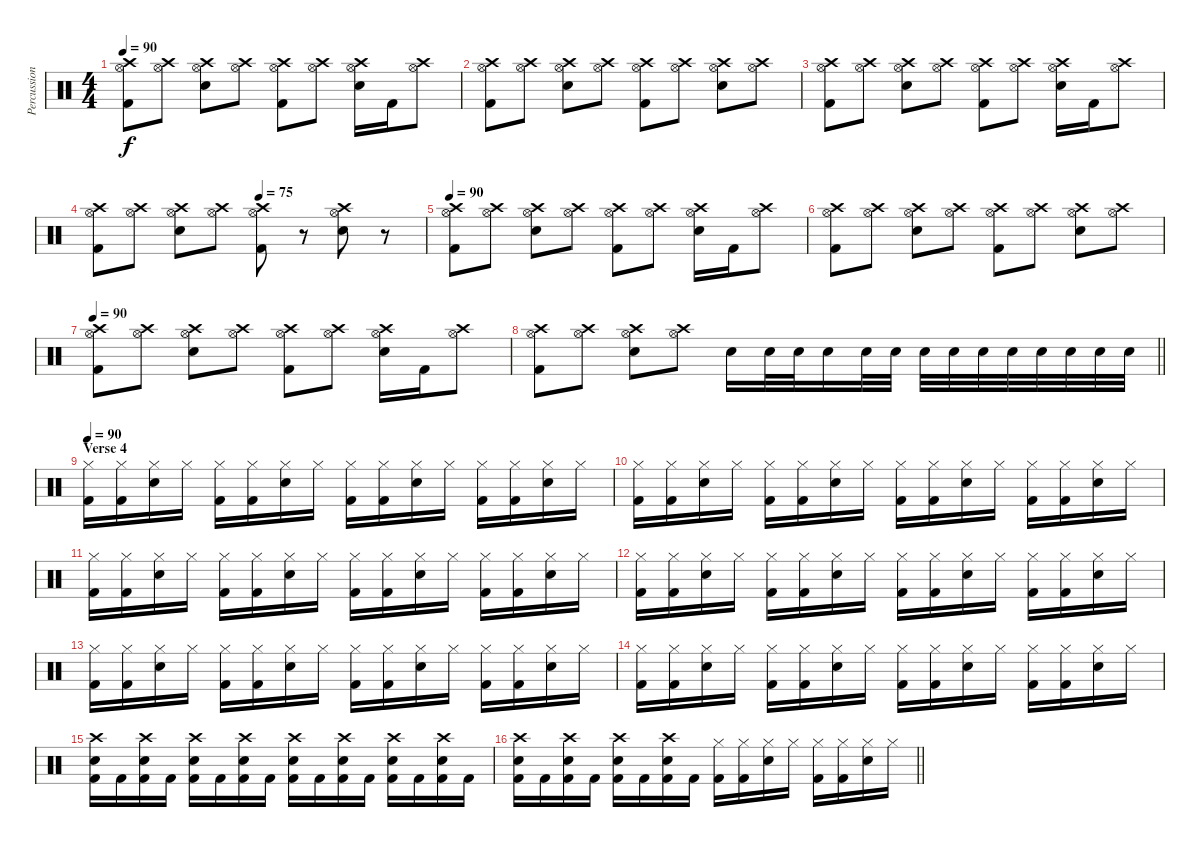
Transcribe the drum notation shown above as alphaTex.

\track ("Percussion" "Percussion") {instrument percussion}
\staff {score}
\articulation defaults
\ts (4 4)
\tempo 90
\clef neutral
\ks c
("Hi-Hat (open)" "Crash high (hit)" "Kick (hit) 2").8{dy f} ("Hi-Hat (open)" "Crash high (hit)").8 ("Hi-Hat (open)" "Crash high (hit)" "Snare (hit) 2").8 ("Hi-Hat (open)" "Crash high (hit)").8 ("Hi-Hat (open)" "Crash high (hit)" "Kick (hit) 2").8 ("Hi-Hat (open)" "Crash high (hit)").8 ("Hi-Hat (open)" "Crash high (hit)" "Snare (hit) 2").16 "Kick (hit) 2".16 ("Hi-Hat (open)" "Crash high (hit)").8 |
("Hi-Hat (open)" "Crash high (hit)" "Kick (hit) 2").8 ("Hi-Hat (open)" "Crash high (hit)").8 ("Hi-Hat (open)" "Crash high (hit)" "Snare (hit) 2").8 ("Hi-Hat (open)" "Crash high (hit)").8 ("Hi-Hat (open)" "Crash high (hit)" "Kick (hit) 2").8 ("Hi-Hat (open)" "Crash high (hit)").8 ("Hi-Hat (open)" "Crash high (hit)" "Snare (hit) 2").8 ("Hi-Hat (open)" "Crash high (hit)").8 |
("Hi-Hat (open)" "Crash high (hit)" "Kick (hit) 2").8 ("Hi-Hat (open)" "Crash high (hit)").8 ("Hi-Hat (open)" "Crash high (hit)" "Snare (hit) 2").8 ("Hi-Hat (open)" "Crash high (hit)").8 ("Hi-Hat (open)" "Crash high (hit)" "Kick (hit) 2").8 ("Hi-Hat (open)" "Crash high (hit)").8 ("Hi-Hat (open)" "Crash high (hit)" "Snare (hit) 2").16 "Kick (hit) 2".16 ("Hi-Hat (open)" "Crash high (hit)").8 |
\tempo (75 0.5)
("Hi-Hat (open)" "Crash high (hit)" "Kick (hit) 2").8 ("Hi-Hat (open)" "Crash high (hit)").8 ("Hi-Hat (open)" "Crash high (hit)" "Snare (hit) 2").8 ("Hi-Hat (open)" "Crash high (hit)").8 ("Hi-Hat (open)" "Crash high (hit)" "Kick (hit) 2").8 r.8 ("Hi-Hat (open)" "Crash high (hit)" "Snare (hit) 2").8 r.8 |
\tempo 90
("Hi-Hat (open)" "Crash high (hit)" "Kick (hit) 2").8 ("Hi-Hat (open)" "Crash high (hit)").8 ("Hi-Hat (open)" "Crash high (hit)" "Snare (hit) 2").8 ("Hi-Hat (open)" "Crash high (hit)").8 ("Hi-Hat (open)" "Crash high (hit)" "Kick (hit) 2").8 ("Hi-Hat (open)" "Crash high (hit)").8 ("Hi-Hat (open)" "Crash high (hit)" "Snare (hit) 2").16 "Kick (hit) 2".16 ("Hi-Hat (open)" "Crash high (hit)").8 |
("Hi-Hat (open)" "Crash high (hit)" "Kick (hit) 2").8 ("Hi-Hat (open)" "Crash high (hit)").8 ("Hi-Hat (open)" "Crash high (hit)" "Snare (hit) 2").8 ("Hi-Hat (open)" "Crash high (hit)").8 ("Hi-Hat (open)" "Crash high (hit)" "Kick (hit) 2").8 ("Hi-Hat (open)" "Crash high (hit)").8 ("Hi-Hat (open)" "Crash high (hit)" "Snare (hit) 2").8 ("Hi-Hat (open)" "Crash high (hit)").8 |
\tempo 90
("Hi-Hat (open)" "Crash high (hit)" "Kick (hit) 2").8 ("Hi-Hat (open)" "Crash high (hit)").8 ("Hi-Hat (open)" "Crash high (hit)" "Snare (hit) 2").8 ("Hi-Hat (open)" "Crash high (hit)").8 ("Hi-Hat (open)" "Crash high (hit)" "Kick (hit) 2").8 ("Hi-Hat (open)" "Crash high (hit)").8 ("Hi-Hat (open)" "Crash high (hit)" "Snare (hit) 2").16 "Kick (hit) 2".16 ("Hi-Hat (open)" "Crash high (hit)").8 |
\barLineRight lightlight
("Hi-Hat (open)" "Crash high (hit)" "Kick (hit) 2").8 ("Hi-Hat (open)" "Crash high (hit)").8 ("Hi-Hat (open)" "Crash high (hit)" "Snare (hit) 2").8 ("Hi-Hat (open)" "Crash high (hit)").8 "Snare (hit) 2".16 "Snare (hit) 2".32 "Snare (hit) 2".32 "Snare (hit) 2".16 "Snare (hit) 2".32 "Snare (hit) 2".32 "Snare (hit) 2".32 "Snare (hit) 2".32 "Snare (hit) 2".32 "Snare (hit) 2".32 "Snare (hit) 2".32 "Snare (hit) 2".32 "Snare (hit) 2".32 "Snare (hit) 2".32 |
\section ("" "Verse 4")
\tempo 90
("Hi-Hat (closed)" "Kick (hit) 2").16 ("Hi-Hat (closed)" "Kick (hit) 2").16 ("Hi-Hat (closed)" "Snare (hit) 2").16 "Hi-Hat (closed)".16 ("Hi-Hat (closed)" "Kick (hit) 2").16 ("Hi-Hat (closed)" "Kick (hit) 2").16 ("Hi-Hat (closed)" "Snare (hit) 2").16 "Hi-Hat (closed)".16 ("Hi-Hat (closed)" "Kick (hit) 2").16 ("Hi-Hat (closed)" "Kick (hit) 2").16 ("Hi-Hat (closed)" "Snare (hit) 2").16 "Hi-Hat (closed)".16 ("Hi-Hat (closed)" "Kick (hit) 2").16 ("Hi-Hat (closed)" "Kick (hit) 2").16 ("Hi-Hat (closed)" "Snare (hit) 2").16 "Hi-Hat (closed)".16 |
("Hi-Hat (closed)" "Kick (hit) 2").16 ("Hi-Hat (closed)" "Kick (hit) 2").16 ("Hi-Hat (closed)" "Snare (hit) 2").16 "Hi-Hat (closed)".16 ("Hi-Hat (closed)" "Kick (hit) 2").16 ("Hi-Hat (closed)" "Kick (hit) 2").16 ("Hi-Hat (closed)" "Snare (hit) 2").16 "Hi-Hat (closed)".16 ("Hi-Hat (closed)" "Kick (hit) 2").16 ("Hi-Hat (closed)" "Kick (hit) 2").16 ("Hi-Hat (closed)" "Snare (hit) 2").16 "Hi-Hat (closed)".16 ("Hi-Hat (closed)" "Kick (hit) 2").16 ("Hi-Hat (closed)" "Kick (hit) 2").16 ("Hi-Hat (closed)" "Snare (hit) 2").16 "Hi-Hat (closed)".16 |
("Hi-Hat (closed)" "Kick (hit) 2").16 ("Hi-Hat (closed)" "Kick (hit) 2").16 ("Hi-Hat (closed)" "Snare (hit) 2").16 "Hi-Hat (closed)".16 ("Hi-Hat (closed)" "Kick (hit) 2").16 ("Hi-Hat (closed)" "Kick (hit) 2").16 ("Hi-Hat (closed)" "Snare (hit) 2").16 "Hi-Hat (closed)".16 ("Hi-Hat (closed)" "Kick (hit) 2").16 ("Hi-Hat (closed)" "Kick (hit) 2").16 ("Hi-Hat (closed)" "Snare (hit) 2").16 "Hi-Hat (closed)".16 ("Hi-Hat (closed)" "Kick (hit) 2").16 ("Hi-Hat (closed)" "Kick (hit) 2").16 ("Hi-Hat (closed)" "Snare (hit) 2").16 "Hi-Hat (closed)".16 |
("Hi-Hat (closed)" "Kick (hit) 2").16 ("Hi-Hat (closed)" "Kick (hit) 2").16 ("Hi-Hat (closed)" "Snare (hit) 2").16 "Hi-Hat (closed)".16 ("Hi-Hat (closed)" "Kick (hit) 2").16 ("Hi-Hat (closed)" "Kick (hit) 2").16 ("Hi-Hat (closed)" "Snare (hit) 2").16 "Hi-Hat (closed)".16 ("Hi-Hat (closed)" "Kick (hit) 2").16 ("Hi-Hat (closed)" "Kick (hit) 2").16 ("Hi-Hat (closed)" "Snare (hit) 2").16 "Hi-Hat (closed)".16 ("Hi-Hat (closed)" "Kick (hit) 2").16 ("Hi-Hat (closed)" "Kick (hit) 2").16 ("Hi-Hat (closed)" "Snare (hit) 2").16 "Hi-Hat (closed)".16 |
("Hi-Hat (closed)" "Kick (hit) 2").16 ("Hi-Hat (closed)" "Kick (hit) 2").16 ("Hi-Hat (closed)" "Snare (hit) 2").16 "Hi-Hat (closed)".16 ("Hi-Hat (closed)" "Kick (hit) 2").16 ("Hi-Hat (closed)" "Kick (hit) 2").16 ("Hi-Hat (closed)" "Snare (hit) 2").16 "Hi-Hat (closed)".16 ("Hi-Hat (closed)" "Kick (hit) 2").16 ("Hi-Hat (closed)" "Kick (hit) 2").16 ("Hi-Hat (closed)" "Snare (hit) 2").16 "Hi-Hat (closed)".16 ("Hi-Hat (closed)" "Kick (hit) 2").16 ("Hi-Hat (closed)" "Kick (hit) 2").16 ("Hi-Hat (closed)" "Snare (hit) 2").16 "Hi-Hat (closed)".16 |
("Hi-Hat (closed)" "Kick (hit) 2").16 ("Hi-Hat (closed)" "Kick (hit) 2").16 ("Hi-Hat (closed)" "Snare (hit) 2").16 "Hi-Hat (closed)".16 ("Hi-Hat (closed)" "Kick (hit) 2").16 ("Hi-Hat (closed)" "Kick (hit) 2").16 ("Hi-Hat (closed)" "Snare (hit) 2").16 "Hi-Hat (closed)".16 ("Hi-Hat (closed)" "Kick (hit) 2").16 ("Hi-Hat (closed)" "Kick (hit) 2").16 ("Hi-Hat (closed)" "Snare (hit) 2").16 "Hi-Hat (closed)".16 ("Hi-Hat (closed)" "Kick (hit) 2").16 ("Hi-Hat (closed)" "Kick (hit) 2").16 ("Hi-Hat (closed)" "Snare (hit) 2").16 "Hi-Hat (closed)".16 |
("Crash high (hit)" "Snare (hit) 2" "Kick (hit) 2").16 "Kick (hit) 2".16 ("Crash high (hit)" "Snare (hit) 2" "Kick (hit) 2").16 "Kick (hit) 2".16 ("Crash high (hit)" "Snare (hit) 2" "Kick (hit) 2").16 "Kick (hit) 2".16 ("Crash high (hit)" "Snare (hit) 2" "Kick (hit) 2").16 "Kick (hit) 2".16 ("Crash high (hit)" "Snare (hit) 2" "Kick (hit) 2").16 "Kick (hit) 2".16 ("Crash high (hit)" "Snare (hit) 2" "Kick (hit) 2").16 "Kick (hit) 2".16 ("Crash high (hit)" "Snare (hit) 2" "Kick (hit) 2").16 "Kick (hit) 2".16 ("Crash high (hit)" "Snare (hit) 2" "Kick (hit) 2").16 "Kick (hit) 2".16 |
\barLineRight lightlight
("Crash high (hit)" "Snare (hit) 2" "Kick (hit) 2").16 "Kick (hit) 2".16 ("Crash high (hit)" "Snare (hit) 2" "Kick (hit) 2").16 "Kick (hit) 2".16 ("Crash high (hit)" "Snare (hit) 2" "Kick (hit) 2").16 "Kick (hit) 2".16 ("Crash high (hit)" "Snare (hit) 2" "Kick (hit) 2").16 "Kick (hit) 2".16 ("Hi-Hat (closed)" "Kick (hit) 2").16 ("Hi-Hat (closed)" "Kick (hit) 2").16 ("Hi-Hat (closed)" "Snare (hit) 2").16 "Hi-Hat (closed)".16 ("Hi-Hat (closed)" "Kick (hit) 2").16 ("Hi-Hat (closed)" "Kick (hit) 2").16 ("Hi-Hat (closed)" "Snare (hit) 2").16 "Hi-Hat (closed)".16
